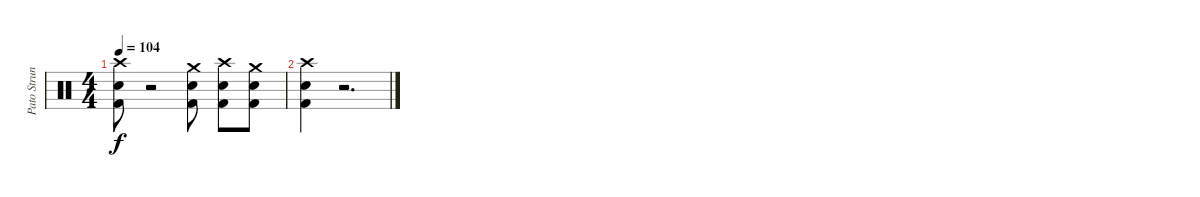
\track ("Pato Strunz (Bateria)" "Pato Strun") {instrument percussion}
\staff {score}
\articulation defaults
\ts (4 4)
\tempo 104
\clef neutral
\ks c
("Crash high (hit)" "Snare (hit) 2" "Kick (hit) 2").8{dy f} r.2 ("Crash medium (hit)" "Snare (hit) 2" "Kick (hit) 2").8 ("Crash high (hit)" "Snare (hit) 2" "Kick (hit) 2").8 ("Crash medium (hit)" "Snare (hit) 2" "Kick (hit) 2").8 |
("Crash high (hit)" "Snare (hit) 2" "Kick (hit) 2").4 r.2{d}
